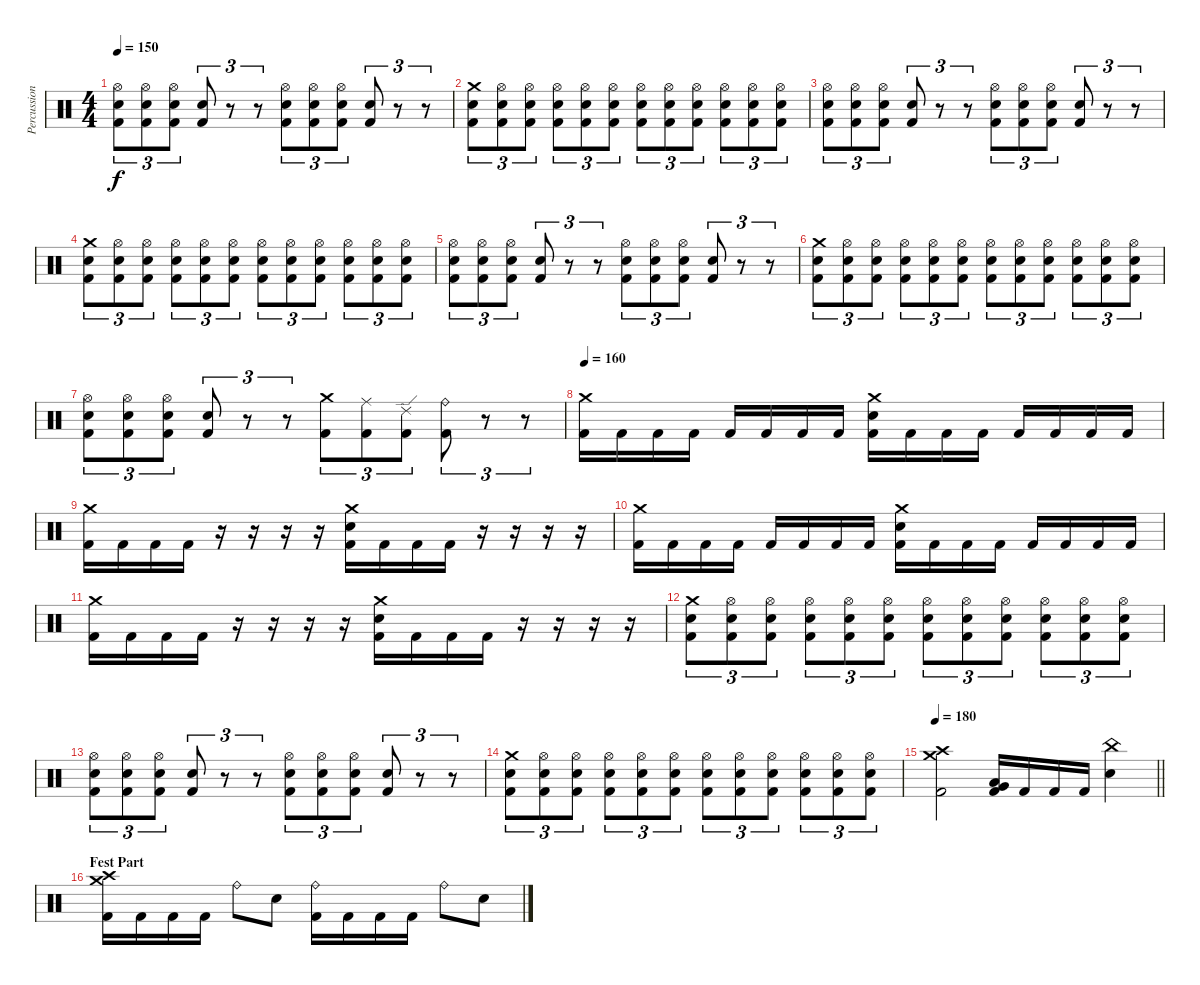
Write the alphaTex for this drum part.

\track ("Percussion" "Percussion") {instrument percussion}
\staff {score}
\articulation defaults
\ts (4 4)
\tempo 150
\clef neutral
\ks c
("Hi-Hat (open)" "Electric Snare (hit)" "Kick (hit) 2").8{tu (3 2) dy f} ("Hi-Hat (open)" "Electric Snare (hit)" "Kick (hit) 2").8{tu (3 2)} ("Hi-Hat (open)" "Electric Snare (hit)" "Kick (hit) 2").8{tu (3 2)} ("Electric Snare (hit)" "Kick (hit) 2").8{tu (3 2)} r.8{tu (3 2)} r.8{tu (3 2)} ("Hi-Hat (open)" "Electric Snare (hit)" "Kick (hit) 2").8{tu (3 2)} ("Hi-Hat (open)" "Electric Snare (hit)" "Kick (hit) 2").8{tu (3 2)} ("Hi-Hat (open)" "Electric Snare (hit)" "Kick (hit) 2").8{tu (3 2)} ("Electric Snare (hit)" "Kick (hit) 2").8{tu (3 2)} r.8{tu (3 2)} r.8{tu (3 2)} |
("Crash medium (hit)" "Electric Snare (hit)" "Kick (hit) 2").8{tu (3 2)} ("Hi-Hat (open)" "Electric Snare (hit)" "Kick (hit) 2").8{tu (3 2)} ("Hi-Hat (open)" "Electric Snare (hit)" "Kick (hit) 2").8{tu (3 2)} ("Hi-Hat (open)" "Electric Snare (hit)" "Kick (hit) 2").8{tu (3 2)} ("Hi-Hat (open)" "Electric Snare (hit)" "Kick (hit) 2").8{tu (3 2)} ("Hi-Hat (open)" "Electric Snare (hit)" "Kick (hit) 2").8{tu (3 2)} ("Hi-Hat (open)" "Electric Snare (hit)" "Kick (hit) 2").8{tu (3 2)} ("Hi-Hat (open)" "Electric Snare (hit)" "Kick (hit) 2").8{tu (3 2)} ("Hi-Hat (open)" "Electric Snare (hit)" "Kick (hit) 2").8{tu (3 2)} ("Hi-Hat (open)" "Electric Snare (hit)" "Kick (hit) 2").8{tu (3 2)} ("Hi-Hat (open)" "Electric Snare (hit)" "Kick (hit) 2").8{tu (3 2)} ("Hi-Hat (open)" "Electric Snare (hit)" "Kick (hit) 2").8{tu (3 2)} |
("Hi-Hat (open)" "Electric Snare (hit)" "Kick (hit) 2").8{tu (3 2)} ("Hi-Hat (open)" "Electric Snare (hit)" "Kick (hit) 2").8{tu (3 2)} ("Hi-Hat (open)" "Electric Snare (hit)" "Kick (hit) 2").8{tu (3 2)} ("Electric Snare (hit)" "Kick (hit) 2").8{tu (3 2)} r.8{tu (3 2)} r.8{tu (3 2)} ("Hi-Hat (open)" "Electric Snare (hit)" "Kick (hit) 2").8{tu (3 2)} ("Hi-Hat (open)" "Electric Snare (hit)" "Kick (hit) 2").8{tu (3 2)} ("Hi-Hat (open)" "Electric Snare (hit)" "Kick (hit) 2").8{tu (3 2)} ("Electric Snare (hit)" "Kick (hit) 2").8{tu (3 2)} r.8{tu (3 2)} r.8{tu (3 2)} |
("Crash medium (hit)" "Electric Snare (hit)" "Kick (hit) 2").8{tu (3 2)} ("Hi-Hat (open)" "Electric Snare (hit)" "Kick (hit) 2").8{tu (3 2)} ("Hi-Hat (open)" "Electric Snare (hit)" "Kick (hit) 2").8{tu (3 2)} ("Hi-Hat (open)" "Electric Snare (hit)" "Kick (hit) 2").8{tu (3 2)} ("Hi-Hat (open)" "Electric Snare (hit)" "Kick (hit) 2").8{tu (3 2)} ("Hi-Hat (open)" "Electric Snare (hit)" "Kick (hit) 2").8{tu (3 2)} ("Hi-Hat (open)" "Electric Snare (hit)" "Kick (hit) 2").8{tu (3 2)} ("Hi-Hat (open)" "Electric Snare (hit)" "Kick (hit) 2").8{tu (3 2)} ("Hi-Hat (open)" "Electric Snare (hit)" "Kick (hit) 2").8{tu (3 2)} ("Hi-Hat (open)" "Electric Snare (hit)" "Kick (hit) 2").8{tu (3 2)} ("Hi-Hat (open)" "Electric Snare (hit)" "Kick (hit) 2").8{tu (3 2)} ("Hi-Hat (open)" "Electric Snare (hit)" "Kick (hit) 2").8{tu (3 2)} |
("Hi-Hat (open)" "Electric Snare (hit)" "Kick (hit) 2").8{tu (3 2)} ("Hi-Hat (open)" "Electric Snare (hit)" "Kick (hit) 2").8{tu (3 2)} ("Hi-Hat (open)" "Electric Snare (hit)" "Kick (hit) 2").8{tu (3 2)} ("Electric Snare (hit)" "Kick (hit) 2").8{tu (3 2)} r.8{tu (3 2)} r.8{tu (3 2)} ("Hi-Hat (open)" "Electric Snare (hit)" "Kick (hit) 2").8{tu (3 2)} ("Hi-Hat (open)" "Electric Snare (hit)" "Kick (hit) 2").8{tu (3 2)} ("Hi-Hat (open)" "Electric Snare (hit)" "Kick (hit) 2").8{tu (3 2)} ("Electric Snare (hit)" "Kick (hit) 2").8{tu (3 2)} r.8{tu (3 2)} r.8{tu (3 2)} |
("Crash medium (hit)" "Electric Snare (hit)" "Kick (hit) 2").8{tu (3 2)} ("Hi-Hat (open)" "Electric Snare (hit)" "Kick (hit) 2").8{tu (3 2)} ("Hi-Hat (open)" "Electric Snare (hit)" "Kick (hit) 2").8{tu (3 2)} ("Hi-Hat (open)" "Electric Snare (hit)" "Kick (hit) 2").8{tu (3 2)} ("Hi-Hat (open)" "Electric Snare (hit)" "Kick (hit) 2").8{tu (3 2)} ("Hi-Hat (open)" "Electric Snare (hit)" "Kick (hit) 2").8{tu (3 2)} ("Hi-Hat (open)" "Electric Snare (hit)" "Kick (hit) 2").8{tu (3 2)} ("Hi-Hat (open)" "Electric Snare (hit)" "Kick (hit) 2").8{tu (3 2)} ("Hi-Hat (open)" "Electric Snare (hit)" "Kick (hit) 2").8{tu (3 2)} ("Hi-Hat (open)" "Electric Snare (hit)" "Kick (hit) 2").8{tu (3 2)} ("Hi-Hat (open)" "Electric Snare (hit)" "Kick (hit) 2").8{tu (3 2)} ("Hi-Hat (open)" "Electric Snare (hit)" "Kick (hit) 2").8{tu (3 2)} |
("Hi-Hat (open)" "Electric Snare (hit)" "Kick (hit) 2").8{tu (3 2)} ("Hi-Hat (open)" "Electric Snare (hit)" "Kick (hit) 2").8{tu (3 2)} ("Hi-Hat (open)" "Electric Snare (hit)" "Kick (hit) 2").8{tu (3 2)} ("Electric Snare (hit)" "Kick (hit) 2").8{tu (3 2)} r.8{tu (3 2)} r.8{tu (3 2)} ("Crash medium (hit)" "Kick (hit) 2").8{tu (3 2)} ("Ride (middle)" "Kick (hit) 2").8{tu (3 2)} ("Ride (edge) 2" "Kick (hit) 2").8{tu (3 2)} ("Ride (bell)" "Kick (hit) 2").8{tu (3 2)} r.8{tu (3 2)} r.8{tu (3 2)} |
\tempo 160
("Crash medium (hit)" "Kick (hit) 2").16 "Kick (hit) 2".16 "Kick (hit) 2".16 "Kick (hit) 2".16 "Kick (hit) 2".16 "Kick (hit) 2".16 "Kick (hit) 2".16 "Kick (hit) 2".16 ("Crash medium (hit)" "Electric Snare (hit)" "Kick (hit) 2").16 "Kick (hit) 2".16 "Kick (hit) 2".16 "Kick (hit) 2".16 "Kick (hit) 2".16 "Kick (hit) 2".16 "Kick (hit) 2".16 "Kick (hit) 2".16 |
("Crash medium (hit)" "Kick (hit) 2").16 "Kick (hit) 2".16 "Kick (hit) 2".16 "Kick (hit) 2".16 r.16 r.16 r.16 r.16 ("Crash medium (hit)" "Electric Snare (hit)" "Kick (hit) 2").16 "Kick (hit) 2".16 "Kick (hit) 2".16 "Kick (hit) 2".16 r.16 r.16 r.16 r.16 |
("Crash medium (hit)" "Kick (hit) 2").16 "Kick (hit) 2".16 "Kick (hit) 2".16 "Kick (hit) 2".16 "Kick (hit) 2".16 "Kick (hit) 2".16 "Kick (hit) 2".16 "Kick (hit) 2".16 ("Crash medium (hit)" "Electric Snare (hit)" "Kick (hit) 2").16 "Kick (hit) 2".16 "Kick (hit) 2".16 "Kick (hit) 2".16 "Kick (hit) 2".16 "Kick (hit) 2".16 "Kick (hit) 2".16 "Kick (hit) 2".16 |
("Crash medium (hit)" "Kick (hit) 2").16 "Kick (hit) 2".16 "Kick (hit) 2".16 "Kick (hit) 2".16 r.16 r.16 r.16 r.16 ("Crash medium (hit)" "Electric Snare (hit)" "Kick (hit) 2").16 "Kick (hit) 2".16 "Kick (hit) 2".16 "Kick (hit) 2".16 r.16 r.16 r.16 r.16 |
("Crash medium (hit)" "Electric Snare (hit)" "Kick (hit) 2").8{tu (3 2)} ("Hi-Hat (open)" "Electric Snare (hit)" "Kick (hit) 2").8{tu (3 2)} ("Hi-Hat (open)" "Electric Snare (hit)" "Kick (hit) 2").8{tu (3 2)} ("Hi-Hat (open)" "Electric Snare (hit)" "Kick (hit) 2").8{tu (3 2)} ("Hi-Hat (open)" "Electric Snare (hit)" "Kick (hit) 2").8{tu (3 2)} ("Hi-Hat (open)" "Electric Snare (hit)" "Kick (hit) 2").8{tu (3 2)} ("Hi-Hat (open)" "Electric Snare (hit)" "Kick (hit) 2").8{tu (3 2)} ("Hi-Hat (open)" "Electric Snare (hit)" "Kick (hit) 2").8{tu (3 2)} ("Hi-Hat (open)" "Electric Snare (hit)" "Kick (hit) 2").8{tu (3 2)} ("Hi-Hat (open)" "Electric Snare (hit)" "Kick (hit) 2").8{tu (3 2)} ("Hi-Hat (open)" "Electric Snare (hit)" "Kick (hit) 2").8{tu (3 2)} ("Hi-Hat (open)" "Electric Snare (hit)" "Kick (hit) 2").8{tu (3 2)} |
("Hi-Hat (open)" "Electric Snare (hit)" "Kick (hit) 2").8{tu (3 2)} ("Hi-Hat (open)" "Electric Snare (hit)" "Kick (hit) 2").8{tu (3 2)} ("Hi-Hat (open)" "Electric Snare (hit)" "Kick (hit) 2").8{tu (3 2)} ("Electric Snare (hit)" "Kick (hit) 2").8{tu (3 2)} r.8{tu (3 2)} r.8{tu (3 2)} ("Hi-Hat (open)" "Electric Snare (hit)" "Kick (hit) 2").8{tu (3 2)} ("Hi-Hat (open)" "Electric Snare (hit)" "Kick (hit) 2").8{tu (3 2)} ("Hi-Hat (open)" "Electric Snare (hit)" "Kick (hit) 2").8{tu (3 2)} ("Electric Snare (hit)" "Kick (hit) 2").8{tu (3 2)} r.8{tu (3 2)} r.8{tu (3 2)} |
("Crash medium (hit)" "Electric Snare (hit)" "Kick (hit) 2").8{tu (3 2)} ("Hi-Hat (open)" "Electric Snare (hit)" "Kick (hit) 2").8{tu (3 2)} ("Hi-Hat (open)" "Electric Snare (hit)" "Kick (hit) 2").8{tu (3 2)} ("Hi-Hat (open)" "Electric Snare (hit)" "Kick (hit) 2").8{tu (3 2)} ("Hi-Hat (open)" "Electric Snare (hit)" "Kick (hit) 2").8{tu (3 2)} ("Hi-Hat (open)" "Electric Snare (hit)" "Kick (hit) 2").8{tu (3 2)} ("Hi-Hat (open)" "Electric Snare (hit)" "Kick (hit) 2").8{tu (3 2)} ("Hi-Hat (open)" "Electric Snare (hit)" "Kick (hit) 2").8{tu (3 2)} ("Hi-Hat (open)" "Electric Snare (hit)" "Kick (hit) 2").8{tu (3 2)} ("Hi-Hat (open)" "Electric Snare (hit)" "Kick (hit) 2").8{tu (3 2)} ("Hi-Hat (open)" "Electric Snare (hit)" "Kick (hit) 2").8{tu (3 2)} ("Hi-Hat (open)" "Electric Snare (hit)" "Kick (hit) 2").8{tu (3 2)} |
\tempo 180
\barLineRight lightlight
("Crash medium (hit)" "Crash high (hit)" "Kick (hit) 2").2 ("Very Low Tom (hit)" "Low Floor Tom (hit)" "Kick (hit) 2").16 "Kick (hit) 2".16 "Kick (hit) 2".16 "Kick (hit) 2".16 ("China (hit)" "Electric Snare (hit)").4 |
\section ("" "Fest Part")
("Crash high (hit)" "Crash medium (hit)" "Kick (hit) 2").16 "Kick (hit) 2".16 "Kick (hit) 2".16 "Kick (hit) 2".16 "Ride (bell)".8 "Electric Snare (hit)".8 ("Ride (bell)" "Kick (hit) 2").16 "Kick (hit) 2".16 "Kick (hit) 2".16 "Kick (hit) 2".16 "Ride (bell)".8 "Electric Snare (hit)".8
